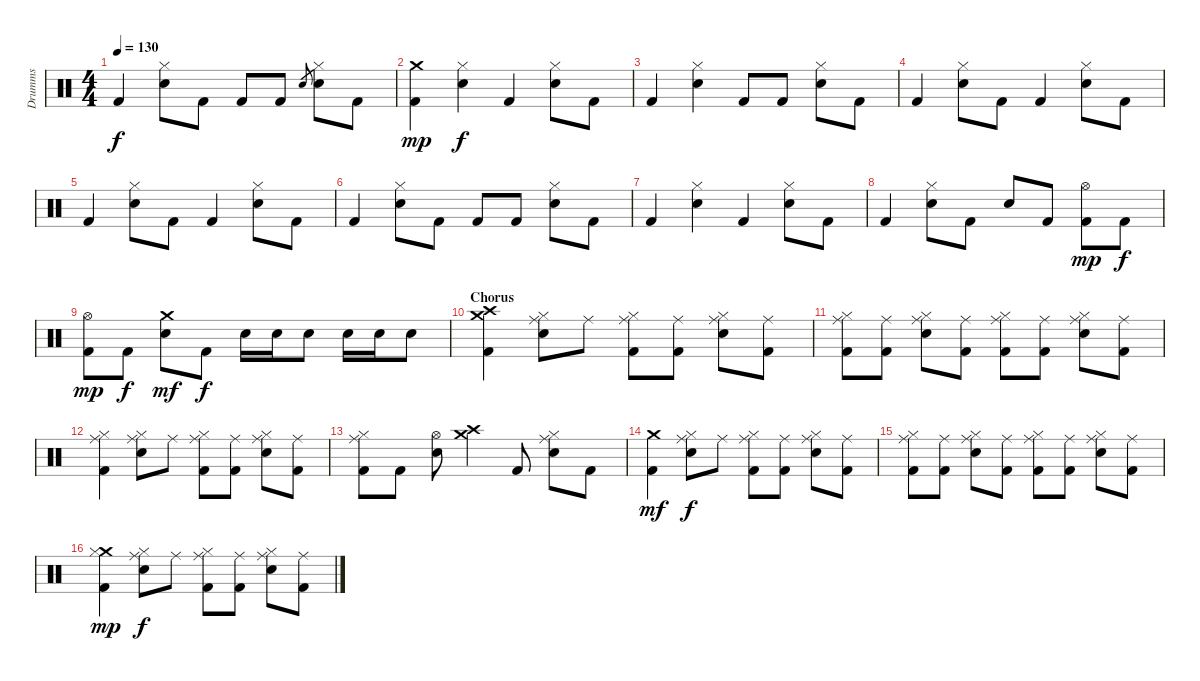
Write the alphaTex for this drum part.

\track ("Drumms" "Drumms") {instrument percussion}
\staff {score}
\articulation defaults
\ts (4 4)
\tempo 130
\clef neutral
\ks c "Kick (hit) 2".4{dy f}
("Hi-Hat (closed)" "Electric Snare (hit)").8 "Kick (hit) 2".8 "Kick (hit) 2".8 "Kick (hit) 2".8 "Electric Snare (hit)".8{gr} ("Hi-Hat (closed)" "Electric Snare (hit)").8 "Kick (hit) 2".8 |
("Crash medium (hit)" "Kick (hit) 2").4{dy mp} ("Hi-Hat (closed)" "Electric Snare (hit)").4{dy f} "Kick (hit) 2".4 ("Hi-Hat (closed)" "Electric Snare (hit)").8 "Kick (hit) 2".8 |
"Kick (hit) 2".4 ("Hi-Hat (closed)" "Electric Snare (hit)").4 "Kick (hit) 2".8 "Kick (hit) 2".8 ("Hi-Hat (closed)" "Electric Snare (hit)").8 "Kick (hit) 2".8 |
"Kick (hit) 2".4 ("Hi-Hat (closed)" "Electric Snare (hit)").8 "Kick (hit) 2".8 "Kick (hit) 2".4 ("Hi-Hat (closed)" "Electric Snare (hit)").8 "Kick (hit) 2".8 |
"Kick (hit) 2".4 ("Hi-Hat (closed)" "Electric Snare (hit)").8 "Kick (hit) 2".8 "Kick (hit) 2".4 ("Hi-Hat (closed)" "Electric Snare (hit)").8 "Kick (hit) 2".8 |
"Kick (hit) 2".4 ("Hi-Hat (closed)" "Electric Snare (hit)").8 "Kick (hit) 2".8 "Kick (hit) 2".8 "Kick (hit) 2".8 ("Hi-Hat (closed)" "Electric Snare (hit)").8 "Kick (hit) 2".8 |
"Kick (hit) 2".4 ("Hi-Hat (closed)" "Electric Snare (hit)").4 "Kick (hit) 2".4 ("Hi-Hat (closed)" "Electric Snare (hit)").8 "Kick (hit) 2".8 |
"Kick (hit) 2".4 ("Hi-Hat (closed)" "Electric Snare (hit)").8 "Kick (hit) 2".8 "Electric Snare (hit)".8 "Kick (hit) 2".8 ("Hi-Hat (open)" "Kick (hit) 2").8{dy mp} "Kick (hit) 2".8{dy f} |
("Hi-Hat (open)" "Kick (hit) 2").8{dy mp} "Kick (hit) 2".8{dy f} ("Crash medium (hit)" "Electric Snare (hit)").8{dy mf} "Kick (hit) 2".8{dy f} "Electric Snare (hit)".16 "Electric Snare (hit)".16 "Electric Snare (hit)".8 "Electric Snare (hit)".16 "Electric Snare (hit)".16 "Electric Snare (hit)".8 |
\section ("" "Chorus")
("Crash medium (hit)" "Crash high (hit)" "Kick (hit) 2").4 ("Ride (middle)" "Hi-Hat (closed)" "Electric Snare (hit)").8 "Ride (middle)".8 ("Ride (middle)" "Hi-Hat (closed)" "Kick (hit) 2").8 ("Ride (middle)" "Kick (hit) 2").8 ("Ride (middle)" "Hi-Hat (closed)" "Electric Snare (hit)").8 ("Ride (middle)" "Kick (hit) 2").8 |
("Ride (middle)" "Hi-Hat (closed)" "Kick (hit) 2").8 ("Ride (middle)" "Kick (hit) 2").8 ("Ride (middle)" "Hi-Hat (closed)" "Electric Snare (hit)").8 ("Ride (middle)" "Kick (hit) 2").8 ("Ride (middle)" "Hi-Hat (closed)" "Kick (hit) 2").8 ("Ride (middle)" "Kick (hit) 2").8 ("Ride (middle)" "Hi-Hat (closed)" "Electric Snare (hit)").8 ("Ride (middle)" "Kick (hit) 2").8 |
("Ride (middle)" "Hi-Hat (closed)" "Kick (hit) 2").4 ("Ride (middle)" "Hi-Hat (closed)" "Electric Snare (hit)").8 "Ride (middle)".8 ("Ride (middle)" "Hi-Hat (closed)" "Kick (hit) 2").8 ("Ride (middle)" "Kick (hit) 2").8 ("Ride (middle)" "Hi-Hat (closed)" "Electric Snare (hit)").8 ("Ride (middle)" "Kick (hit) 2").8 |
("Ride (middle)" "Hi-Hat (closed)" "Kick (hit) 2").8 "Kick (hit) 2".8 ("Hi-Hat (open)" "Electric Snare (hit)").8 ("Crash medium (hit)" "Crash high (hit)").4 "Kick (hit) 2".8 ("Ride (middle)" "Hi-Hat (closed)" "Electric Snare (hit)").8 "Kick (hit) 2".8 |
("Crash medium (hit)" "Kick (hit) 2").4{dy mf} ("Ride (middle)" "Hi-Hat (closed)" "Electric Snare (hit)").8{dy f} "Ride (middle)".8 ("Ride (middle)" "Hi-Hat (closed)" "Kick (hit) 2").8 ("Ride (middle)" "Kick (hit) 2").8 ("Ride (middle)" "Hi-Hat (closed)" "Electric Snare (hit)").8 ("Ride (middle)" "Kick (hit) 2").8 |
("Ride (middle)" "Hi-Hat (closed)" "Kick (hit) 2").8 ("Ride (middle)" "Kick (hit) 2").8 ("Ride (middle)" "Hi-Hat (closed)" "Electric Snare (hit)").8 ("Ride (middle)" "Kick (hit) 2").8 ("Ride (middle)" "Hi-Hat (closed)" "Kick (hit) 2").8 ("Ride (middle)" "Kick (hit) 2").8 ("Ride (middle)" "Hi-Hat (closed)" "Electric Snare (hit)").8 ("Ride (middle)" "Kick (hit) 2").8 |
("Crash medium (hit)" "Hi-Hat (closed)" "Kick (hit) 2").4{dy mp} ("Ride (middle)" "Hi-Hat (closed)" "Electric Snare (hit)").8{dy f} "Ride (middle)".8 ("Ride (middle)" "Hi-Hat (closed)" "Kick (hit) 2").8 ("Ride (middle)" "Kick (hit) 2").8 ("Ride (middle)" "Hi-Hat (closed)" "Electric Snare (hit)").8 ("Ride (middle)" "Kick (hit) 2").8
